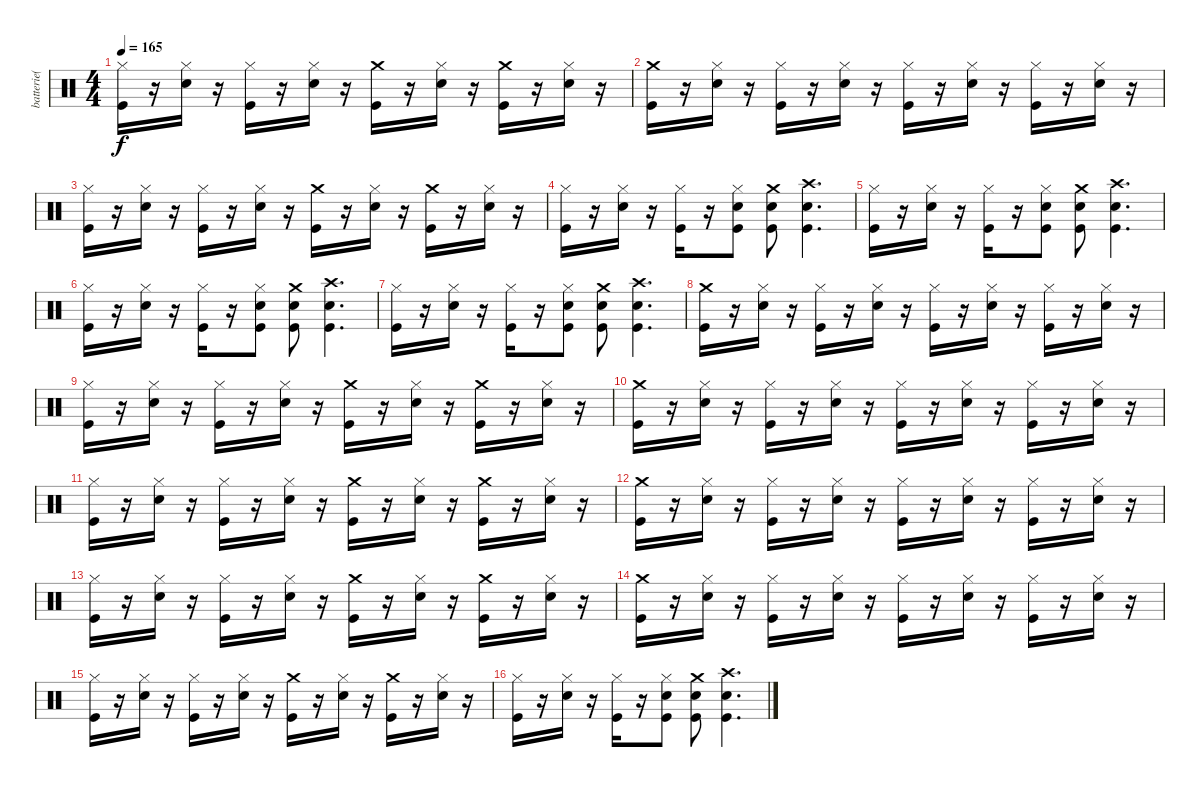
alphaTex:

\track ("batterie( Shawn )" "batterie( ") {instrument percussion}
\staff {score}
\articulation defaults
\ts (4 4)
\tempo 165
\clef neutral
\ks c
("Hi-Hat (closed)" "Kick (hit)").16{dy f} r.16 ("Hi-Hat (closed)" "Snare (hit) 2").16 r.16 ("Hi-Hat (closed)" "Kick (hit)").16 r.16 ("Hi-Hat (closed)" "Snare (hit) 2").16 r.16 ("Crash medium (hit)" "Kick (hit)").16 r.16 ("Hi-Hat (closed)" "Snare (hit) 2").16 r.16 ("Crash medium (hit)" "Kick (hit)").16 r.16 ("Hi-Hat (closed)" "Snare (hit) 2").16 r.16 |
("Crash medium (hit)" "Kick (hit)").16 r.16 ("Hi-Hat (closed)" "Snare (hit) 2").16 r.16 ("Hi-Hat (closed)" "Kick (hit)").16 r.16 ("Hi-Hat (closed)" "Snare (hit) 2").16 r.16 ("Hi-Hat (closed)" "Kick (hit)").16 r.16 ("Hi-Hat (closed)" "Snare (hit) 2").16 r.16 ("Hi-Hat (closed)" "Kick (hit)").16 r.16 ("Hi-Hat (closed)" "Snare (hit) 2").16 r.16 |
("Hi-Hat (closed)" "Kick (hit)").16 r.16 ("Hi-Hat (closed)" "Snare (hit) 2").16 r.16 ("Hi-Hat (closed)" "Kick (hit)").16 r.16 ("Hi-Hat (closed)" "Snare (hit) 2").16 r.16 ("Crash medium (hit)" "Kick (hit)").16 r.16 ("Hi-Hat (closed)" "Snare (hit) 2").16 r.16 ("Crash medium (hit)" "Kick (hit)").16 r.16 ("Hi-Hat (closed)" "Snare (hit) 2").16 r.16 |
("Hi-Hat (closed)" "Kick (hit)").16 r.16 ("Hi-Hat (closed)" "Snare (hit) 2").16 r.16 ("Hi-Hat (closed)" "Kick (hit)").16 r.16 ("Hi-Hat (closed)" "Snare (hit) 2" "Kick (hit)").8 ("Crash medium (hit)" "Snare (hit) 2" "Kick (hit)").8 ("Crash high (hit)" "Snare (hit) 2" "Kick (hit)").4{d} |
("Hi-Hat (closed)" "Kick (hit)").16 r.16 ("Hi-Hat (closed)" "Snare (hit) 2").16 r.16 ("Hi-Hat (closed)" "Kick (hit)").16 r.16 ("Hi-Hat (closed)" "Snare (hit) 2" "Kick (hit)").8 ("Crash medium (hit)" "Snare (hit) 2" "Kick (hit)").8 ("Crash high (hit)" "Snare (hit) 2" "Kick (hit)").4{d} |
("Hi-Hat (closed)" "Kick (hit)").16 r.16 ("Hi-Hat (closed)" "Snare (hit) 2").16 r.16 ("Hi-Hat (closed)" "Kick (hit)").16 r.16 ("Hi-Hat (closed)" "Snare (hit) 2" "Kick (hit)").8 ("Crash medium (hit)" "Snare (hit) 2" "Kick (hit)").8 ("Crash high (hit)" "Snare (hit) 2" "Kick (hit)").4{d} |
("Hi-Hat (closed)" "Kick (hit)").16 r.16 ("Hi-Hat (closed)" "Snare (hit) 2").16 r.16 ("Hi-Hat (closed)" "Kick (hit)").16 r.16 ("Hi-Hat (closed)" "Snare (hit) 2" "Kick (hit)").8 ("Crash medium (hit)" "Snare (hit) 2" "Kick (hit)").8 ("Crash high (hit)" "Snare (hit) 2" "Kick (hit)").4{d} |
("Crash medium (hit)" "Kick (hit)").16 r.16 ("Hi-Hat (closed)" "Snare (hit) 2").16 r.16 ("Hi-Hat (closed)" "Kick (hit)").16 r.16 ("Hi-Hat (closed)" "Snare (hit) 2").16 r.16 ("Hi-Hat (closed)" "Kick (hit)").16 r.16 ("Hi-Hat (closed)" "Snare (hit) 2").16 r.16 ("Hi-Hat (closed)" "Kick (hit)").16 r.16 ("Hi-Hat (closed)" "Snare (hit) 2").16 r.16 |
("Hi-Hat (closed)" "Kick (hit)").16 r.16 ("Hi-Hat (closed)" "Snare (hit) 2").16 r.16 ("Hi-Hat (closed)" "Kick (hit)").16 r.16 ("Hi-Hat (closed)" "Snare (hit) 2").16 r.16 ("Crash medium (hit)" "Kick (hit)").16 r.16 ("Hi-Hat (closed)" "Snare (hit) 2").16 r.16 ("Crash medium (hit)" "Kick (hit)").16 r.16 ("Hi-Hat (closed)" "Snare (hit) 2").16 r.16 |
("Crash medium (hit)" "Kick (hit)").16 r.16 ("Hi-Hat (closed)" "Snare (hit) 2").16 r.16 ("Hi-Hat (closed)" "Kick (hit)").16 r.16 ("Hi-Hat (closed)" "Snare (hit) 2").16 r.16 ("Hi-Hat (closed)" "Kick (hit)").16 r.16 ("Hi-Hat (closed)" "Snare (hit) 2").16 r.16 ("Hi-Hat (closed)" "Kick (hit)").16 r.16 ("Hi-Hat (closed)" "Snare (hit) 2").16 r.16 |
("Hi-Hat (closed)" "Kick (hit)").16 r.16 ("Hi-Hat (closed)" "Snare (hit) 2").16 r.16 ("Hi-Hat (closed)" "Kick (hit)").16 r.16 ("Hi-Hat (closed)" "Snare (hit) 2").16 r.16 ("Crash medium (hit)" "Kick (hit)").16 r.16 ("Hi-Hat (closed)" "Snare (hit) 2").16 r.16 ("Crash medium (hit)" "Kick (hit)").16 r.16 ("Hi-Hat (closed)" "Snare (hit) 2").16 r.16 |
("Crash medium (hit)" "Kick (hit)").16 r.16 ("Hi-Hat (closed)" "Snare (hit) 2").16 r.16 ("Hi-Hat (closed)" "Kick (hit)").16 r.16 ("Hi-Hat (closed)" "Snare (hit) 2").16 r.16 ("Hi-Hat (closed)" "Kick (hit)").16 r.16 ("Hi-Hat (closed)" "Snare (hit) 2").16 r.16 ("Hi-Hat (closed)" "Kick (hit)").16 r.16 ("Hi-Hat (closed)" "Snare (hit) 2").16 r.16 |
("Hi-Hat (closed)" "Kick (hit)").16 r.16 ("Hi-Hat (closed)" "Snare (hit) 2").16 r.16 ("Hi-Hat (closed)" "Kick (hit)").16 r.16 ("Hi-Hat (closed)" "Snare (hit) 2").16 r.16 ("Crash medium (hit)" "Kick (hit)").16 r.16 ("Hi-Hat (closed)" "Snare (hit) 2").16 r.16 ("Crash medium (hit)" "Kick (hit)").16 r.16 ("Hi-Hat (closed)" "Snare (hit) 2").16 r.16 |
("Crash medium (hit)" "Kick (hit)").16 r.16 ("Hi-Hat (closed)" "Snare (hit) 2").16 r.16 ("Hi-Hat (closed)" "Kick (hit)").16 r.16 ("Hi-Hat (closed)" "Snare (hit) 2").16 r.16 ("Hi-Hat (closed)" "Kick (hit)").16 r.16 ("Hi-Hat (closed)" "Snare (hit) 2").16 r.16 ("Hi-Hat (closed)" "Kick (hit)").16 r.16 ("Hi-Hat (closed)" "Snare (hit) 2").16 r.16 |
("Hi-Hat (closed)" "Kick (hit)").16 r.16 ("Hi-Hat (closed)" "Snare (hit) 2").16 r.16 ("Hi-Hat (closed)" "Kick (hit)").16 r.16 ("Hi-Hat (closed)" "Snare (hit) 2").16 r.16 ("Crash medium (hit)" "Kick (hit)").16 r.16 ("Hi-Hat (closed)" "Snare (hit) 2").16 r.16 ("Crash medium (hit)" "Kick (hit)").16 r.16 ("Hi-Hat (closed)" "Snare (hit) 2").16 r.16 |
("Hi-Hat (closed)" "Kick (hit)").16 r.16 ("Hi-Hat (closed)" "Snare (hit) 2").16 r.16 ("Hi-Hat (closed)" "Kick (hit)").16 r.16 ("Hi-Hat (closed)" "Snare (hit) 2" "Kick (hit)").8 ("Crash medium (hit)" "Snare (hit) 2" "Kick (hit)").8 ("Crash high (hit)" "Snare (hit) 2" "Kick (hit)").4{d}
